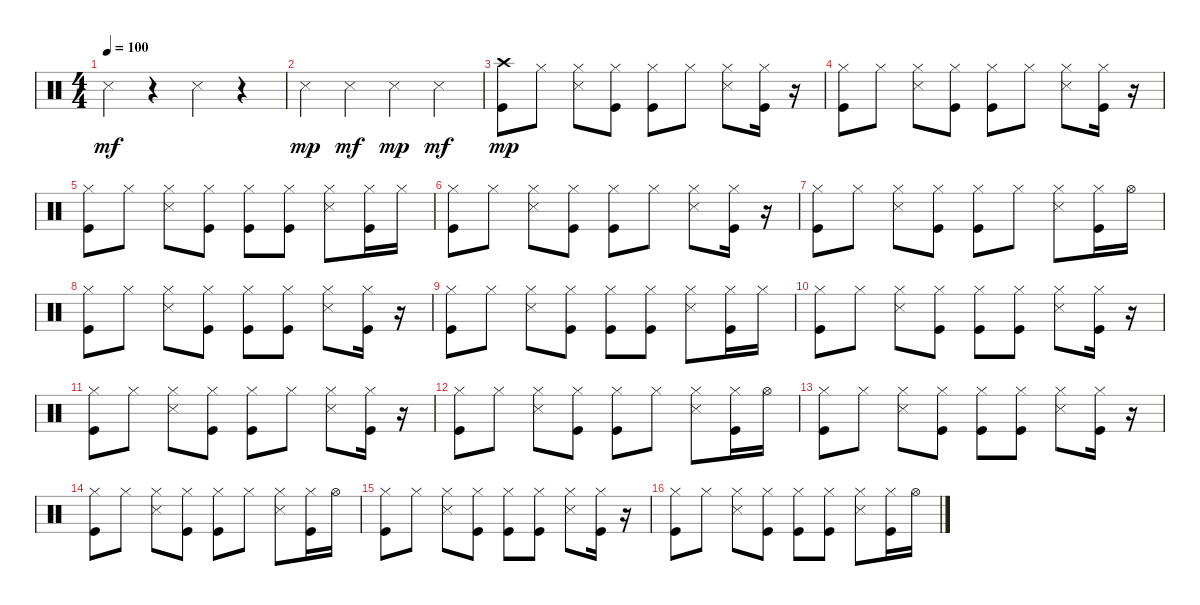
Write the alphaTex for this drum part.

\track "" {instrument percussion}
\staff {score}
\articulation defaults
\ts (4 4)
\tempo 100
\clef neutral
\ks c "Snare (side stick) 3".4{dy mf}
r.4 "Snare (side stick) 3".4 r.4 |
"Snare (side stick) 3".4{dy mp} "Snare (side stick) 3".4{dy mf} "Snare (side stick) 3".4{dy mp} "Snare (side stick) 3".4{dy mf} |
("Kick (hit)" "Crash high (hit)").8{dy mp} "Hi-Hat (closed)".8 ("Snare (side stick) 3" "Hi-Hat (closed)").8 ("Kick (hit)" "Hi-Hat (closed)").8 ("Kick (hit)" "Hi-Hat (closed)").8 "Hi-Hat (closed)".8 ("Snare (side stick) 3" "Hi-Hat (closed)").8 ("Kick (hit)" "Hi-Hat (closed)").16 r.16 |
("Kick (hit)" "Hi-Hat (closed)").8 "Hi-Hat (closed)".8 ("Snare (side stick) 3" "Hi-Hat (closed)").8 ("Kick (hit)" "Hi-Hat (closed)").8 ("Kick (hit)" "Hi-Hat (closed)").8 "Hi-Hat (closed)".8 ("Snare (side stick) 3" "Hi-Hat (closed)").8 ("Kick (hit)" "Hi-Hat (closed)").16 r.16 |
("Kick (hit)" "Hi-Hat (closed)").8 "Hi-Hat (closed)".8 ("Snare (side stick) 3" "Hi-Hat (closed)").8 ("Kick (hit)" "Hi-Hat (closed)").8 ("Kick (hit)" "Hi-Hat (closed)").8 ("Kick (hit)" "Hi-Hat (closed)").8 ("Snare (side stick) 3" "Hi-Hat (closed)").8 ("Kick (hit)" "Hi-Hat (closed)").16 "Hi-Hat (closed)".16 |
("Kick (hit)" "Hi-Hat (closed)").8 "Hi-Hat (closed)".8 ("Snare (side stick) 3" "Hi-Hat (closed)").8 ("Kick (hit)" "Hi-Hat (closed)").8 ("Kick (hit)" "Hi-Hat (closed)").8 "Hi-Hat (closed)".8 ("Snare (side stick) 3" "Hi-Hat (closed)").8 ("Kick (hit)" "Hi-Hat (closed)").16 r.16 |
("Kick (hit)" "Hi-Hat (closed)").8 "Hi-Hat (closed)".8 ("Snare (side stick) 3" "Hi-Hat (closed)").8 ("Kick (hit)" "Hi-Hat (closed)").8 ("Kick (hit)" "Hi-Hat (closed)").8 "Hi-Hat (closed)".8 ("Snare (side stick) 3" "Hi-Hat (closed)").8 ("Kick (hit)" "Hi-Hat (closed)").16 "Hi-Hat (open)".16 |
("Kick (hit)" "Hi-Hat (closed)").8 "Hi-Hat (closed)".8 ("Snare (side stick) 3" "Hi-Hat (closed)").8 ("Kick (hit)" "Hi-Hat (closed)").8 ("Kick (hit)" "Hi-Hat (closed)").8 ("Kick (hit)" "Hi-Hat (closed)").8 ("Snare (side stick) 3" "Hi-Hat (closed)").8 ("Kick (hit)" "Hi-Hat (closed)").16 r.16 |
("Kick (hit)" "Hi-Hat (closed)").8 "Hi-Hat (closed)".8 ("Snare (side stick) 3" "Hi-Hat (closed)").8 ("Kick (hit)" "Hi-Hat (closed)").8 ("Kick (hit)" "Hi-Hat (closed)").8 ("Kick (hit)" "Hi-Hat (closed)").8 ("Snare (side stick) 3" "Hi-Hat (closed)").8 ("Kick (hit)" "Hi-Hat (closed)").16 "Hi-Hat (closed)".16 |
("Kick (hit)" "Hi-Hat (closed)").8 "Hi-Hat (closed)".8 ("Snare (side stick) 3" "Hi-Hat (closed)").8 ("Kick (hit)" "Hi-Hat (closed)").8 ("Kick (hit)" "Hi-Hat (closed)").8 ("Kick (hit)" "Hi-Hat (closed)").8 ("Snare (side stick) 3" "Hi-Hat (closed)").8 ("Kick (hit)" "Hi-Hat (closed)").16 r.16 |
("Kick (hit)" "Hi-Hat (closed)").8 "Hi-Hat (closed)".8 ("Snare (side stick) 3" "Hi-Hat (closed)").8 ("Kick (hit)" "Hi-Hat (closed)").8 ("Kick (hit)" "Hi-Hat (closed)").8 "Hi-Hat (closed)".8 ("Snare (side stick) 3" "Hi-Hat (closed)").8 ("Kick (hit)" "Hi-Hat (closed)").16 r.16 |
("Kick (hit)" "Hi-Hat (closed)").8 "Hi-Hat (closed)".8 ("Snare (side stick) 3" "Hi-Hat (closed)").8 ("Kick (hit)" "Hi-Hat (closed)").8 ("Kick (hit)" "Hi-Hat (closed)").8 "Hi-Hat (closed)".8 ("Snare (side stick) 3" "Hi-Hat (closed)").8 ("Kick (hit)" "Hi-Hat (closed)").16 "Hi-Hat (open)".16 |
("Kick (hit)" "Hi-Hat (closed)").8 "Hi-Hat (closed)".8 ("Snare (side stick) 3" "Hi-Hat (closed)").8 ("Kick (hit)" "Hi-Hat (closed)").8 ("Kick (hit)" "Hi-Hat (closed)").8 ("Kick (hit)" "Hi-Hat (closed)").8 ("Snare (side stick) 3" "Hi-Hat (closed)").8 ("Kick (hit)" "Hi-Hat (closed)").16 r.16 |
("Kick (hit)" "Hi-Hat (closed)").8 "Hi-Hat (closed)".8 ("Snare (side stick) 3" "Hi-Hat (closed)").8 ("Kick (hit)" "Hi-Hat (closed)").8 ("Kick (hit)" "Hi-Hat (closed)").8 "Hi-Hat (closed)".8 ("Snare (side stick) 3" "Hi-Hat (closed)").8 ("Kick (hit)" "Hi-Hat (closed)").16 "Hi-Hat (open)".16 |
("Kick (hit)" "Hi-Hat (closed)").8 "Hi-Hat (closed)".8 ("Snare (side stick) 3" "Hi-Hat (closed)").8 ("Kick (hit)" "Hi-Hat (closed)").8 ("Kick (hit)" "Hi-Hat (closed)").8 ("Kick (hit)" "Hi-Hat (closed)").8 ("Snare (side stick) 3" "Hi-Hat (closed)").8 ("Kick (hit)" "Hi-Hat (closed)").16 r.16 |
("Kick (hit)" "Hi-Hat (closed)").8 "Hi-Hat (closed)".8 ("Snare (side stick) 3" "Hi-Hat (closed)").8 ("Kick (hit)" "Hi-Hat (closed)").8 ("Kick (hit)" "Hi-Hat (closed)").8 ("Kick (hit)" "Hi-Hat (closed)").8 ("Snare (side stick) 3" "Hi-Hat (closed)").8 ("Kick (hit)" "Hi-Hat (closed)").16 "Hi-Hat (open)".16
